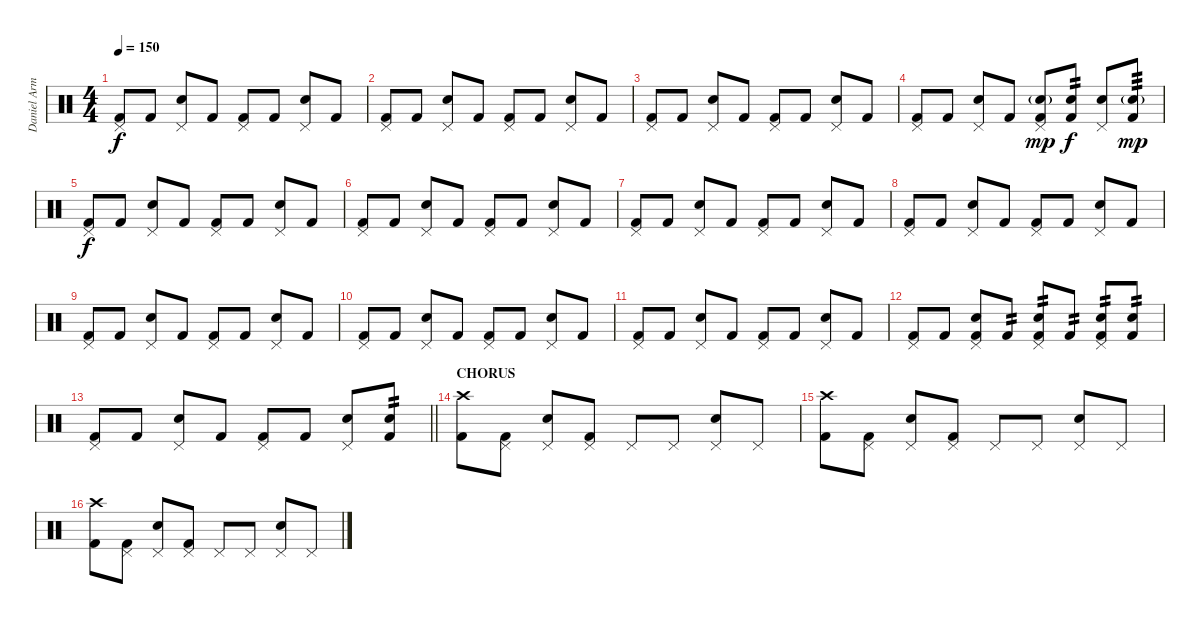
\track ("Daniel Armstrong" "Daniel Arm") {instrument percussion}
\staff {score}
\articulation defaults
\ts (4 4)
\tempo 150
\clef neutral
\ks c
("Pedal Hi-Hat (hit)" "Kick (hit) 2").8{dy f} "Kick (hit) 2".8 ("Pedal Hi-Hat (hit)" "Electric Snare (hit)").8 "Kick (hit) 2".8 ("Pedal Hi-Hat (hit)" "Kick (hit) 2").8 "Kick (hit) 2".8 ("Pedal Hi-Hat (hit)" "Electric Snare (hit)").8 "Kick (hit) 2".8 |
("Pedal Hi-Hat (hit)" "Kick (hit) 2").8 "Kick (hit) 2".8 ("Pedal Hi-Hat (hit)" "Electric Snare (hit)").8 "Kick (hit) 2".8 ("Pedal Hi-Hat (hit)" "Kick (hit) 2").8 "Kick (hit) 2".8 ("Pedal Hi-Hat (hit)" "Electric Snare (hit)").8 "Kick (hit) 2".8 |
("Pedal Hi-Hat (hit)" "Kick (hit) 2").8 "Kick (hit) 2".8 ("Pedal Hi-Hat (hit)" "Electric Snare (hit)").8 "Kick (hit) 2".8 ("Pedal Hi-Hat (hit)" "Kick (hit) 2").8 "Kick (hit) 2".8 ("Pedal Hi-Hat (hit)" "Electric Snare (hit)").8 "Kick (hit) 2".8 |
("Pedal Hi-Hat (hit)" "Kick (hit) 2").8 "Kick (hit) 2".8 ("Pedal Hi-Hat (hit)" "Electric Snare (hit)").8 "Kick (hit) 2".8 ("Pedal Hi-Hat (hit)" "Electric Snare (hit)"{g} "Kick (hit) 2").8{dy mp} ("Electric Snare (hit)" "Kick (hit) 2").8{tp 2 dy f} ("Pedal Hi-Hat (hit)" "Electric Snare (hit)").8 ("Electric Snare (hit)"{g} "Kick (hit) 2").8{tp 3 dy mp} |
("Pedal Hi-Hat (hit)" "Kick (hit) 2").8{dy f} "Kick (hit) 2".8 ("Pedal Hi-Hat (hit)" "Electric Snare (hit)").8 "Kick (hit) 2".8 ("Pedal Hi-Hat (hit)" "Kick (hit) 2").8 "Kick (hit) 2".8 ("Pedal Hi-Hat (hit)" "Electric Snare (hit)").8 "Kick (hit) 2".8 |
("Pedal Hi-Hat (hit)" "Kick (hit) 2").8 "Kick (hit) 2".8 ("Pedal Hi-Hat (hit)" "Electric Snare (hit)").8 "Kick (hit) 2".8 ("Pedal Hi-Hat (hit)" "Kick (hit) 2").8 "Kick (hit) 2".8 ("Pedal Hi-Hat (hit)" "Electric Snare (hit)").8 "Kick (hit) 2".8 |
("Pedal Hi-Hat (hit)" "Kick (hit) 2").8 "Kick (hit) 2".8 ("Pedal Hi-Hat (hit)" "Electric Snare (hit)").8 "Kick (hit) 2".8 ("Pedal Hi-Hat (hit)" "Kick (hit) 2").8 "Kick (hit) 2".8 ("Pedal Hi-Hat (hit)" "Electric Snare (hit)").8 "Kick (hit) 2".8 |
("Pedal Hi-Hat (hit)" "Kick (hit) 2").8 "Kick (hit) 2".8 ("Pedal Hi-Hat (hit)" "Electric Snare (hit)").8 "Kick (hit) 2".8 ("Pedal Hi-Hat (hit)" "Kick (hit) 2").8 "Kick (hit) 2".8 ("Pedal Hi-Hat (hit)" "Electric Snare (hit)").8 "Kick (hit) 2".8 |
("Pedal Hi-Hat (hit)" "Kick (hit) 2").8 "Kick (hit) 2".8 ("Pedal Hi-Hat (hit)" "Electric Snare (hit)").8 "Kick (hit) 2".8 ("Pedal Hi-Hat (hit)" "Kick (hit) 2").8 "Kick (hit) 2".8 ("Pedal Hi-Hat (hit)" "Electric Snare (hit)").8 "Kick (hit) 2".8 |
("Pedal Hi-Hat (hit)" "Kick (hit) 2").8 "Kick (hit) 2".8 ("Pedal Hi-Hat (hit)" "Electric Snare (hit)").8 "Kick (hit) 2".8 ("Pedal Hi-Hat (hit)" "Kick (hit) 2").8 "Kick (hit) 2".8 ("Pedal Hi-Hat (hit)" "Electric Snare (hit)").8 "Kick (hit) 2".8 |
("Pedal Hi-Hat (hit)" "Kick (hit) 2").8 "Kick (hit) 2".8 ("Pedal Hi-Hat (hit)" "Electric Snare (hit)").8 "Kick (hit) 2".8 ("Pedal Hi-Hat (hit)" "Kick (hit) 2").8 "Kick (hit) 2".8 ("Pedal Hi-Hat (hit)" "Electric Snare (hit)").8 "Kick (hit) 2".8 |
("Pedal Hi-Hat (hit)" "Kick (hit) 2").8 "Kick (hit) 2".8 ("Pedal Hi-Hat (hit)" "Electric Snare (hit)" "Kick (hit) 2").8 "Kick (hit) 2".8{tp 2} ("Pedal Hi-Hat (hit)" "Electric Snare (hit)" "Kick (hit) 2").8{tp 2} "Kick (hit) 2".8{tp 2} ("Pedal Hi-Hat (hit)" "Electric Snare (hit)" "Kick (hit) 2").8{tp 2} ("Electric Snare (hit)" "Kick (hit) 2").8{tp 2} |
\barLineRight lightlight
("Pedal Hi-Hat (hit)" "Kick (hit) 2").8 "Kick (hit) 2".8 ("Pedal Hi-Hat (hit)" "Electric Snare (hit)").8 "Kick (hit) 2".8 ("Pedal Hi-Hat (hit)" "Kick (hit) 2").8 "Kick (hit) 2".8 ("Pedal Hi-Hat (hit)" "Electric Snare (hit)").8 ("Electric Snare (hit)" "Kick (hit) 2").8{tp 2} |
\section ("" "CHORUS")
("Crash high (hit)" "Kick (hit) 2").8 ("Pedal Hi-Hat (hit)" "Kick (hit) 2").8 ("Pedal Hi-Hat (hit)" "Electric Snare (hit)").8 ("Pedal Hi-Hat (hit)" "Kick (hit) 2").8 "Pedal Hi-Hat (hit)".8 "Pedal Hi-Hat (hit)".8 ("Pedal Hi-Hat (hit)" "Electric Snare (hit)").8 "Pedal Hi-Hat (hit)".8 |
("Crash high (hit)" "Kick (hit) 2").8 ("Pedal Hi-Hat (hit)" "Kick (hit) 2").8 ("Pedal Hi-Hat (hit)" "Electric Snare (hit)").8 ("Pedal Hi-Hat (hit)" "Kick (hit) 2").8 "Pedal Hi-Hat (hit)".8 "Pedal Hi-Hat (hit)".8 ("Pedal Hi-Hat (hit)" "Electric Snare (hit)").8 "Pedal Hi-Hat (hit)".8 |
("Crash high (hit)" "Kick (hit) 2").8 ("Pedal Hi-Hat (hit)" "Kick (hit) 2").8 ("Pedal Hi-Hat (hit)" "Electric Snare (hit)").8 ("Pedal Hi-Hat (hit)" "Kick (hit) 2").8 "Pedal Hi-Hat (hit)".8 "Pedal Hi-Hat (hit)".8 ("Pedal Hi-Hat (hit)" "Electric Snare (hit)").8 "Pedal Hi-Hat (hit)".8
